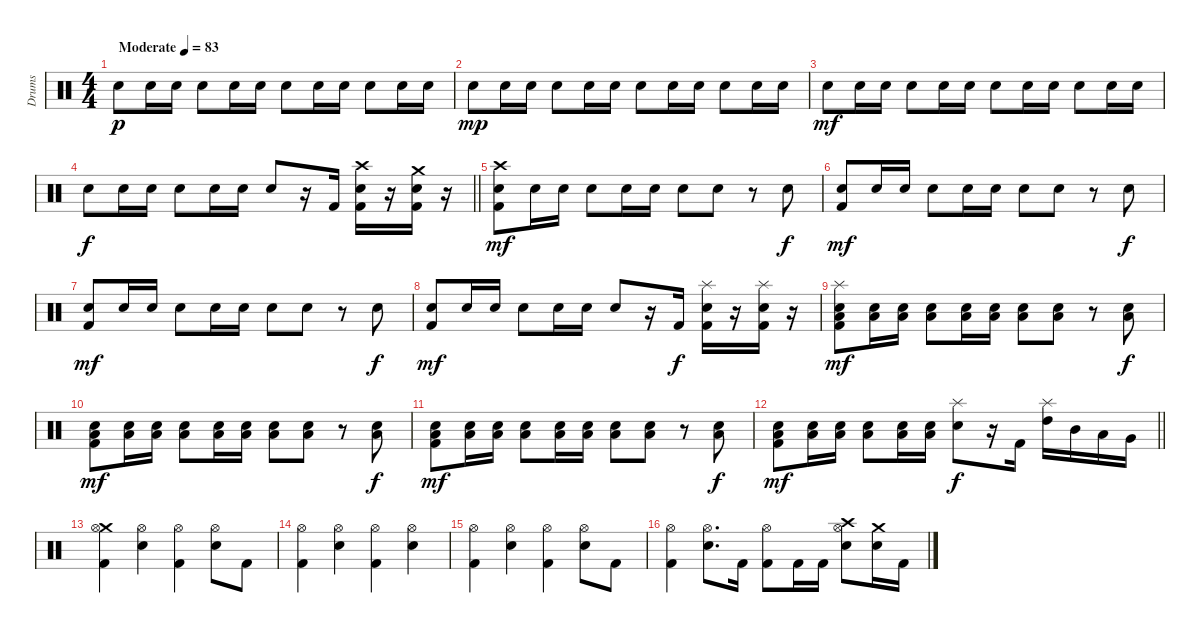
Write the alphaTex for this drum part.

\track ("Drums" "Drums") {instrument percussion}
\staff {score}
\articulation defaults
\ts (4 4)
\section ("" "")
\tempo (83 "Moderate")
\clef neutral
\ks c "Electric Snare (hit)".8{dy p} "Electric Snare (hit)".16 "Electric Snare (hit)".16 "Electric Snare (hit)".8 "Electric Snare (hit)".16 "Electric Snare (hit)".16 "Electric Snare (hit)".8 "Electric Snare (hit)".16 "Electric Snare (hit)".16 "Electric Snare (hit)".8 "Electric Snare (hit)".16 "Electric Snare (hit)".16
|
"Electric Snare (hit)".8{dy mp} "Electric Snare (hit)".16 "Electric Snare (hit)".16 "Electric Snare (hit)".8 "Electric Snare (hit)".16 "Electric Snare (hit)".16 "Electric Snare (hit)".8 "Electric Snare (hit)".16 "Electric Snare (hit)".16 "Electric Snare (hit)".8 "Electric Snare (hit)".16 "Electric Snare (hit)".16 |
"Electric Snare (hit)".8{dy mf} "Electric Snare (hit)".16 "Electric Snare (hit)".16 "Electric Snare (hit)".8 "Electric Snare (hit)".16 "Electric Snare (hit)".16 "Electric Snare (hit)".8 "Electric Snare (hit)".16 "Electric Snare (hit)".16 "Electric Snare (hit)".8 "Electric Snare (hit)".16 "Electric Snare (hit)".16 |
\barLineRight lightlight "Electric Snare (hit)".8{dy f} "Electric Snare (hit)".16 "Electric Snare (hit)".16 "Electric Snare (hit)".8 "Electric Snare (hit)".16 "Electric Snare (hit)".16 "Electric Snare (hit)".8
r.16 "Kick (hit) 2".16 ("Crash high (hit)" "Electric Snare (hit)" "Kick (hit) 2").16 r.16 ("Crash medium (hit)" "Electric Snare (hit)" "Kick (hit) 2").16 r.16 |
\section ("" "")
("Crash high (hit)" "Electric Snare (hit)" "Kick (hit) 2").8{dy mf} "Electric Snare (hit)".16 "Electric Snare (hit)".16 "Electric Snare (hit)".8 "Electric Snare (hit)".16 "Electric Snare (hit)".16 "Electric Snare (hit)".8 "Electric Snare (hit)".8 r.8 "Electric Snare (hit)".8{dy f} |
("Electric Snare (hit)" "Kick (hit) 2").8{dy mf} "Electric Snare (hit)".16 "Electric Snare (hit)".16 "Electric Snare (hit)".8 "Electric Snare (hit)".16 "Electric Snare (hit)".16 "Electric Snare (hit)".8 "Electric Snare (hit)".8 r.8 "Electric Snare (hit)".8{dy f} |
("Electric Snare (hit)" "Kick (hit) 2").8{dy mf} "Electric Snare (hit)".16 "Electric Snare (hit)".16 "Electric Snare (hit)".8 "Electric Snare (hit)".16 "Electric Snare (hit)".16 "Electric Snare (hit)".8 "Electric Snare (hit)".8 r.8 "Electric Snare (hit)".8{dy f} |
("Electric Snare (hit)" "Kick (hit) 2").8{dy mf} "Electric Snare (hit)".16 "Electric Snare (hit)".16 "Electric Snare (hit)".8 "Electric Snare (hit)".16 "Electric Snare (hit)".16 "Electric Snare (hit)".8 r.16 "Kick (hit) 2".16{dy f} ("Splash (hit)" "Electric Snare (hit)" "Kick (hit) 2").16 r.16 ("Splash (hit)" "Electric Snare (hit)" "Kick (hit) 2").16 r.16 |
("Splash (hit)" "Low Tom (hit)" "Electric Snare (hit)" "Kick (hit) 2").8{dy mf} ("Low Tom (hit)" "Electric Snare (hit)").16 ("Low Tom (hit)" "Electric Snare (hit)").16 ("Low Tom (hit)" "Electric Snare (hit)").8 ("Low Tom (hit)" "Electric Snare (hit)").16 ("Low Tom (hit)" "Electric Snare (hit)").16 ("Low Tom (hit)" "Electric Snare (hit)").8 ("Low Tom (hit)" "Electric Snare (hit)").8 r.8 ("Low Tom (hit)" "Electric Snare (hit)").8{dy f} |
("Low Tom (hit)" "Electric Snare (hit)" "Kick (hit) 2").8{dy mf} ("Low Tom (hit)" "Electric Snare (hit)").16 ("Low Tom (hit)" "Electric Snare (hit)").16 ("Low Tom (hit)" "Electric Snare (hit)").8 ("Low Tom (hit)" "Electric Snare (hit)").16 ("Low Tom (hit)" "Electric Snare (hit)").16 ("Low Tom (hit)" "Electric Snare (hit)").8 ("Low Tom (hit)" "Electric Snare (hit)").8 r.8 ("Low Tom (hit)" "Electric Snare (hit)").8{dy f} |
("Low Tom (hit)" "Electric Snare (hit)" "Kick (hit) 2").8{dy mf} ("Low Tom (hit)" "Electric Snare (hit)").16 ("Low Tom (hit)" "Electric Snare (hit)").16 ("Low Tom (hit)" "Electric Snare (hit)").8 ("Low Tom (hit)" "Electric Snare (hit)").16 ("Low Tom (hit)" "Electric Snare (hit)").16 ("Low Tom (hit)" "Electric Snare (hit)").8 ("Low Tom (hit)" "Electric Snare (hit)").8 r.8 ("Low Tom (hit)" "Electric Snare (hit)").8{dy f} |
\barLineRight lightlight
("Low Tom (hit)" "Electric Snare (hit)" "Kick (hit) 2").8{dy mf} ("Low Tom (hit)" "Electric Snare (hit)").16 ("Low Tom (hit)" "Electric Snare (hit)").16 ("Low Tom (hit)" "Electric Snare (hit)").8 ("Low Tom (hit)" "Electric Snare (hit)").16 ("Low Tom (hit)" "Electric Snare (hit)").16 ("Splash (hit)" "Electric Snare (hit)").8{dy f} r.16 "Kick (hit) 2".16 ("Splash (hit)" "High Tom (hit)").16 "Mid Tom (hit)".16 "Low Tom (hit)".16 "Very Low Tom (hit)".16 |
\section ("" "")
("Crash medium (hit)" "Hi-Hat (open)" "Kick (hit) 2").4 ("Hi-Hat (open)" "Electric Snare (hit)").4 ("Hi-Hat (open)" "Kick (hit) 2").4 ("Hi-Hat (open)" "Electric Snare (hit)").8 "Kick (hit) 2".8 |
("Hi-Hat (open)" "Kick (hit) 2").4 ("Hi-Hat (open)" "Electric Snare (hit)").4 ("Hi-Hat (open)" "Kick (hit) 2").4 ("Hi-Hat (open)" "Electric Snare (hit)").4 |
("Hi-Hat (open)" "Kick (hit) 2").4 ("Hi-Hat (open)" "Electric Snare (hit)").4 ("Hi-Hat (open)" "Kick (hit) 2").4 ("Hi-Hat (open)" "Electric Snare (hit)").8 "Kick (hit) 2".8 |
("Hi-Hat (open)" "Kick (hit) 2").4 ("Hi-Hat (open)" "Electric Snare (hit)").8{d} "Kick (hit) 2".16 ("Hi-Hat (open)" "Kick (hit) 2").8 "Kick (hit) 2".16 "Kick (hit) 2".16 ("Crash high (hit)" "Hi-Hat (open)" "Electric Snare (hit)").8 ("Crash medium (hit)" "Electric Snare (hit)").16 "Kick (hit) 2".16
